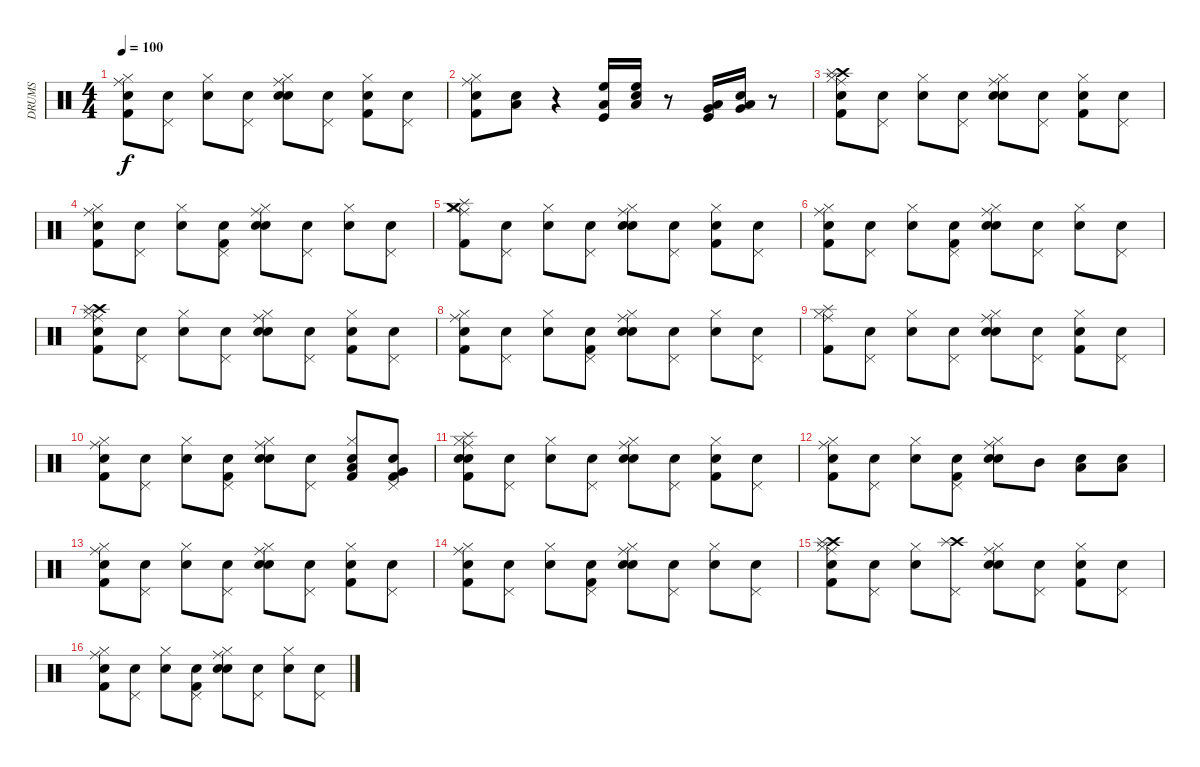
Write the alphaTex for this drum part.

\track ("DRUMS" "DRUMS") {instrument percussion}
\staff {score}
\articulation defaults
\ts (4 4)
\tempo 100
\clef neutral
\ks c
("Snare (hit)" "Kick (hit) 2" "Ride (middle)" "Hi-Hat (closed)").8{dy f} ("Snare (hit)" "Pedal Hi-Hat (hit)").8 ("Snare (hit)" "Hi-Hat (closed)").8 ("Snare (hit)" "Pedal Hi-Hat (hit)").8 ("Snare (hit)" "Ride (middle)" "Hi-Hat (closed)" "Snare (hit) 2").8 ("Snare (hit)" "Pedal Hi-Hat (hit)").8 ("Snare (hit)" "Hi-Hat (closed)" "Kick (hit) 2").8 ("Snare (hit)" "Pedal Hi-Hat (hit)").8 |
("Snare (hit)" "Ride (middle)" "Hi-Hat (closed)" "Kick (hit) 2").8 ("Snare (hit)" "Low Tom (hit)").8 r.4 ("High Floor Tom (hit)" "Kick (hit)" "Low Tom (hit)").16 ("Snare (hit)" "High Floor Tom (hit)" "Low Tom (hit)").16 r.8 ("Very Low Tom (hit)" "Kick (hit)" "Low Tom (hit)").16 ("Snare (hit)" "Very Low Tom (hit)" "Low Tom (hit)").16 r.8 |
("Ride (middle)" "Hi-Hat (closed)" "Kick (hit) 2" "Snare (hit) 2" "Crash high (hit)" "Splash (hit)").8 ("Snare (hit)" "Pedal Hi-Hat (hit)").8 ("Snare (hit)" "Hi-Hat (closed)").8 ("Snare (hit)" "Pedal Hi-Hat (hit)").8 ("Snare (hit)" "Ride (middle)" "Hi-Hat (closed)" "Snare (hit) 2").8 ("Snare (hit)" "Pedal Hi-Hat (hit)").8 ("Snare (hit)" "Hi-Hat (closed)" "Kick (hit) 2").8 ("Snare (hit)" "Pedal Hi-Hat (hit)").8 |
("Snare (hit)" "Ride (middle)" "Hi-Hat (closed)" "Kick (hit) 2").8 ("Snare (hit)" "Pedal Hi-Hat (hit)").8 ("Snare (hit)" "Hi-Hat (closed)").8 ("Snare (hit)" "Pedal Hi-Hat (hit)" "Kick (hit) 2").8 ("Snare (hit)" "Ride (middle)" "Hi-Hat (closed)" "Snare (hit) 2").8 ("Snare (hit)" "Pedal Hi-Hat (hit)").8 ("Snare (hit)" "Hi-Hat (closed)").8 ("Snare (hit)" "Pedal Hi-Hat (hit)").8 |
("Crash medium (hit)" "Splash (hit)" "Kick (hit) 2" "Ride (middle)" "Hi-Hat (closed)").8 ("Snare (hit)" "Pedal Hi-Hat (hit)").8 ("Snare (hit)" "Hi-Hat (closed)").8 ("Snare (hit)" "Pedal Hi-Hat (hit)").8 ("Snare (hit)" "Ride (middle)" "Hi-Hat (closed)" "Snare (hit) 2").8 ("Snare (hit)" "Pedal Hi-Hat (hit)").8 ("Snare (hit)" "Hi-Hat (closed)" "Kick (hit) 2").8 ("Snare (hit)" "Pedal Hi-Hat (hit)").8 |
("Snare (hit)" "Ride (middle)" "Hi-Hat (closed)" "Kick (hit) 2").8 ("Snare (hit)" "Pedal Hi-Hat (hit)").8 ("Snare (hit)" "Hi-Hat (closed)").8 ("Snare (hit)" "Pedal Hi-Hat (hit)" "Kick (hit) 2").8 ("Snare (hit)" "Ride (middle)" "Hi-Hat (closed)" "Snare (hit) 2").8 ("Snare (hit)" "Pedal Hi-Hat (hit)").8 ("Snare (hit)" "Hi-Hat (closed)").8 ("Snare (hit)" "Pedal Hi-Hat (hit)").8 |
("Snare (hit)" "Hi-Hat (closed)" "Ride (middle)" "Kick (hit) 2" "Crash high (hit)" "Splash (hit)").8 ("Snare (hit)" "Pedal Hi-Hat (hit)").8 ("Snare (hit)" "Hi-Hat (closed)").8 ("Snare (hit)" "Pedal Hi-Hat (hit)").8 ("Snare (hit)" "Ride (middle)" "Hi-Hat (closed)" "Snare (hit) 2").8 ("Snare (hit)" "Pedal Hi-Hat (hit)").8 ("Snare (hit)" "Hi-Hat (closed)" "Kick (hit) 2").8 ("Snare (hit)" "Pedal Hi-Hat (hit)").8 |
("Snare (hit)" "Ride (middle)" "Hi-Hat (closed)" "Kick (hit) 2").8 ("Snare (hit)" "Pedal Hi-Hat (hit)").8 ("Snare (hit)" "Hi-Hat (closed)").8 ("Snare (hit)" "Pedal Hi-Hat (hit)" "Kick (hit) 2").8 ("Snare (hit)" "Ride (middle)" "Hi-Hat (closed)" "Snare (hit) 2").8 ("Snare (hit)" "Pedal Hi-Hat (hit)").8 ("Snare (hit)" "Hi-Hat (closed)").8 ("Snare (hit)" "Pedal Hi-Hat (hit)").8 |
("Splash (hit)" "Kick (hit) 2" "Ride (middle)" "Hi-Hat (closed)").8 ("Snare (hit)" "Pedal Hi-Hat (hit)").8 ("Snare (hit)" "Hi-Hat (closed)").8 ("Snare (hit)" "Pedal Hi-Hat (hit)").8 ("Snare (hit)" "Ride (middle)" "Hi-Hat (closed)" "Snare (hit) 2").8 ("Snare (hit)" "Pedal Hi-Hat (hit)").8 ("Snare (hit)" "Hi-Hat (closed)" "Kick (hit) 2").8 ("Snare (hit)" "Pedal Hi-Hat (hit)").8 |
("Snare (hit)" "Ride (middle)" "Hi-Hat (closed)" "Kick (hit) 2").8 ("Snare (hit)" "Pedal Hi-Hat (hit)").8 ("Snare (hit)" "Hi-Hat (closed)").8 ("Snare (hit)" "Pedal Hi-Hat (hit)" "Kick (hit) 2").8 ("Snare (hit)" "Ride (middle)" "Hi-Hat (closed)" "Snare (hit) 2").8 ("Snare (hit)" "Pedal Hi-Hat (hit)").8 ("Snare (hit)" "Kick (hit) 2" "Low Tom (hit)" "Hi-Hat (closed)").8 ("Snare (hit)" "Very Low Tom (hit)" "Kick (hit) 2" "Pedal Hi-Hat (hit)").8 |
("Snare (hit)" "Ride (middle)" "Hi-Hat (closed)" "Kick (hit) 2" "Snare (hit) 2" "Splash (hit)").8 ("Snare (hit)" "Pedal Hi-Hat (hit)").8 ("Snare (hit)" "Hi-Hat (closed)").8 ("Snare (hit)" "Pedal Hi-Hat (hit)").8 ("Snare (hit)" "Ride (middle)" "Hi-Hat (closed)" "Snare (hit) 2").8 ("Snare (hit)" "Pedal Hi-Hat (hit)").8 ("Snare (hit)" "Hi-Hat (closed)" "Kick (hit) 2").8 ("Snare (hit)" "Pedal Hi-Hat (hit)").8 |
("Snare (hit)" "Ride (middle)" "Hi-Hat (closed)" "Kick (hit) 2").8 ("Snare (hit)" "Pedal Hi-Hat (hit)").8 ("Snare (hit)" "Hi-Hat (closed)").8 ("Snare (hit)" "Pedal Hi-Hat (hit)" "Kick (hit) 2").8 ("Snare (hit)" "Ride (middle)" "Hi-Hat (closed)" "Snare (hit) 2").8 "Mid Tom (hit)".8 ("Snare (hit)" "Low Tom (hit)").8 ("Snare (hit)" "Low Tom (hit)").8 |
("Snare (hit)" "Kick (hit) 2" "Ride (middle)" "Hi-Hat (closed)").8 ("Snare (hit)" "Pedal Hi-Hat (hit)").8 ("Snare (hit)" "Hi-Hat (closed)").8 ("Snare (hit)" "Pedal Hi-Hat (hit)").8 ("Snare (hit)" "Ride (middle)" "Hi-Hat (closed)" "Snare (hit) 2").8 ("Snare (hit)" "Pedal Hi-Hat (hit)").8 ("Snare (hit)" "Hi-Hat (closed)" "Kick (hit) 2").8 ("Snare (hit)" "Pedal Hi-Hat (hit)").8 |
("Snare (hit)" "Ride (middle)" "Hi-Hat (closed)" "Kick (hit) 2").8 ("Snare (hit)" "Pedal Hi-Hat (hit)").8 ("Snare (hit)" "Hi-Hat (closed)").8 ("Snare (hit)" "Pedal Hi-Hat (hit)" "Kick (hit) 2").8 ("Snare (hit)" "Ride (middle)" "Hi-Hat (closed)" "Snare (hit) 2").8 ("Snare (hit)" "Pedal Hi-Hat (hit)").8 ("Snare (hit)" "Hi-Hat (closed)").8 ("Snare (hit)" "Pedal Hi-Hat (hit)").8 |
("Snare (hit)" "Hi-Hat (closed)" "Ride (middle)" "Kick (hit) 2" "Crash high (hit)" "Splash (hit)").8 ("Snare (hit)" "Pedal Hi-Hat (hit)").8 ("Snare (hit)" "Hi-Hat (closed)").8 ("Crash high (hit)" "Splash (hit)" "Pedal Hi-Hat (hit)").8 ("Snare (hit)" "Ride (middle)" "Hi-Hat (closed)" "Snare (hit) 2").8 ("Snare (hit)" "Pedal Hi-Hat (hit)").8 ("Snare (hit)" "Hi-Hat (closed)" "Kick (hit) 2").8 ("Snare (hit)" "Pedal Hi-Hat (hit)").8 |
("Snare (hit)" "Ride (middle)" "Hi-Hat (closed)" "Kick (hit) 2").8 ("Snare (hit)" "Pedal Hi-Hat (hit)").8 ("Snare (hit)" "Hi-Hat (closed)").8 ("Snare (hit)" "Pedal Hi-Hat (hit)" "Kick (hit) 2").8 ("Snare (hit)" "Ride (middle)" "Hi-Hat (closed)" "Snare (hit) 2").8 ("Snare (hit)" "Pedal Hi-Hat (hit)").8 ("Snare (hit)" "Hi-Hat (closed)").8 ("Snare (hit)" "Pedal Hi-Hat (hit)").8
